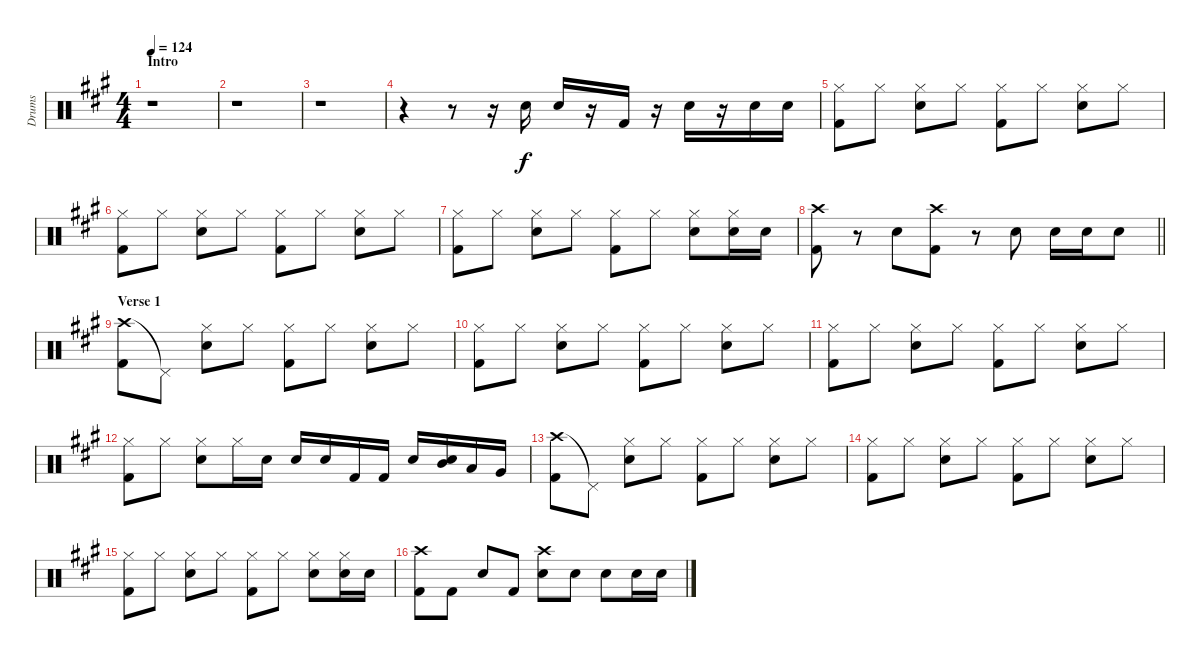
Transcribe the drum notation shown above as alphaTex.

\track ("Drums" "Drums") {instrument percussion}
\staff {score}
\articulation defaults
\ts (4 4)
\section ("" "Intro")
\tempo 124
\clef neutral
\ks a
r.1{dy f} |
r.1 |
r.1 |
r.4 r.8 r.16 "Electric Snare (hit)".16 "Electric Snare (hit)".16 r.16 "Kick (hit) 2".16 r.16 "Electric Snare (hit)".16 r.16 "Electric Snare (hit)".16 "Electric Snare (hit)".16 |
("Hi-Hat (closed)" "Kick (hit) 2").8 "Hi-Hat (closed)".8 ("Hi-Hat (closed)" "Electric Snare (hit)").8 "Hi-Hat (closed)".8 ("Hi-Hat (closed)" "Kick (hit) 2").8 "Hi-Hat (closed)".8 ("Hi-Hat (closed)" "Electric Snare (hit)").8 "Hi-Hat (closed)".8 |
("Hi-Hat (closed)" "Kick (hit) 2").8 "Hi-Hat (closed)".8 ("Hi-Hat (closed)" "Electric Snare (hit)").8 "Hi-Hat (closed)".8 ("Hi-Hat (closed)" "Kick (hit) 2").8 "Hi-Hat (closed)".8 ("Hi-Hat (closed)" "Electric Snare (hit)").8 "Hi-Hat (closed)".8 |
("Hi-Hat (closed)" "Kick (hit) 2").8 "Hi-Hat (closed)".8 ("Hi-Hat (closed)" "Electric Snare (hit)").8 "Hi-Hat (closed)".8 ("Hi-Hat (closed)" "Kick (hit) 2").8 "Hi-Hat (closed)".8 ("Hi-Hat (closed)" "Electric Snare (hit)").8 ("Hi-Hat (closed)" "Electric Snare (hit)").16 "Electric Snare (hit)".16 |
\barLineRight lightlight
("Crash high (hit)" "Kick (hit) 2").8 r.8 "Electric Snare (hit)".8 ("Crash high (hit)" "Kick (hit) 2").8 r.8 "Electric Snare (hit)".8 "Electric Snare (hit)".16 "Electric Snare (hit)".16 "Electric Snare (hit)".8 |
\section ("" "Verse 1")
("Crash high (hit)" "Kick (hit) 2").8 "Pedal Hi-Hat (hit)"{t}.8 ("Hi-Hat (closed)" "Electric Snare (hit)").8 "Hi-Hat (closed)".8 ("Hi-Hat (closed)" "Kick (hit) 2").8 "Hi-Hat (closed)".8 ("Hi-Hat (closed)" "Electric Snare (hit)").8 "Hi-Hat (closed)".8 |
("Hi-Hat (closed)" "Kick (hit) 2").8 "Hi-Hat (closed)".8 ("Hi-Hat (closed)" "Electric Snare (hit)").8 "Hi-Hat (closed)".8 ("Hi-Hat (closed)" "Kick (hit) 2").8 "Hi-Hat (closed)".8 ("Hi-Hat (closed)" "Electric Snare (hit)").8 "Hi-Hat (closed)".8 |
("Hi-Hat (closed)" "Kick (hit) 2").8 "Hi-Hat (closed)".8 ("Hi-Hat (closed)" "Electric Snare (hit)").8 "Hi-Hat (closed)".8 ("Hi-Hat (closed)" "Kick (hit) 2").8 "Hi-Hat (closed)".8 ("Hi-Hat (closed)" "Electric Snare (hit)").8 "Hi-Hat (closed)".8 |
("Hi-Hat (closed)" "Kick (hit) 2").8 "Hi-Hat (closed)".8 ("Hi-Hat (closed)" "Electric Snare (hit)").8 "Hi-Hat (closed)".16 "Electric Snare (hit)".16 "Electric Snare (hit)".16 "Electric Snare (hit)".16 "Kick (hit) 2".16 "Kick (hit) 2".16 "Electric Snare (hit)".16 ("Electric Snare (hit)" "Mid Tom (hit)").16 "Low Tom (hit)".16 "Very Low Tom (hit)".16 |
("Crash high (hit)" "Kick (hit) 2").8 "Pedal Hi-Hat (hit)"{t}.8 ("Hi-Hat (closed)" "Electric Snare (hit)").8 "Hi-Hat (closed)".8 ("Hi-Hat (closed)" "Kick (hit) 2").8 "Hi-Hat (closed)".8 ("Hi-Hat (closed)" "Electric Snare (hit)").8 "Hi-Hat (closed)".8 |
("Hi-Hat (closed)" "Kick (hit) 2").8 "Hi-Hat (closed)".8 ("Hi-Hat (closed)" "Electric Snare (hit)").8 "Hi-Hat (closed)".8 ("Hi-Hat (closed)" "Kick (hit) 2").8 "Hi-Hat (closed)".8 ("Hi-Hat (closed)" "Electric Snare (hit)").8 "Hi-Hat (closed)".8 |
("Hi-Hat (closed)" "Kick (hit) 2").8 "Hi-Hat (closed)".8 ("Hi-Hat (closed)" "Electric Snare (hit)").8 "Hi-Hat (closed)".8 ("Hi-Hat (closed)" "Kick (hit) 2").8 "Hi-Hat (closed)".8 ("Hi-Hat (closed)" "Electric Snare (hit)").8 ("Hi-Hat (closed)" "Electric Snare (hit)").16 "Electric Snare (hit)".16 |
("Crash high (hit)" "Kick (hit) 2").8 "Kick (hit) 2".8 "Electric Snare (hit)".8 "Kick (hit) 2".8 ("Crash high (hit)" "Electric Snare (hit)").8 "Electric Snare (hit)".8 "Electric Snare (hit)".8 "Electric Snare (hit)".16 "Electric Snare (hit)".16
